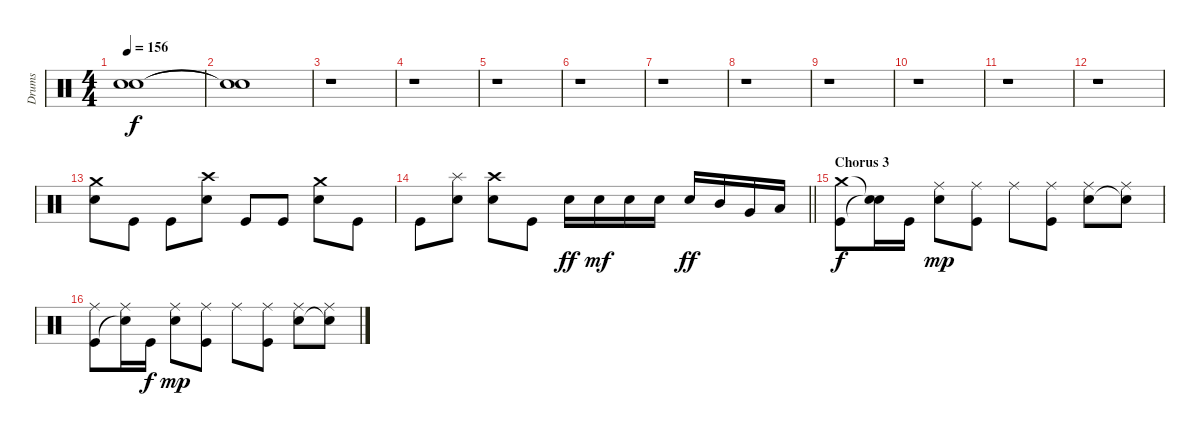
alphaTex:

\track ("Drums" "Drums") {instrument percussion}
\staff {score}
\articulation defaults
\ts (4 4)
\tempo 156
\clef neutral
\ks c
("Snare (hit)"{t} "Snare (hit)"{t}).1{dy f} |
("Snare (hit)"{t} "Snare (hit)"{t}).1 |
r.1 |
r.1 |
r.1 |
r.1 |
r.1 |
r.1 |
r.1 |
r.1 |
r.1 |
r.1 |
("Crash medium (hit)" "Snare (hit) 2").8 "Kick (hit)".8 "Kick (hit)".8 ("Crash high (hit)" "Snare (hit) 2").8 "Kick (hit)".8 "Kick (hit)".8 ("Crash medium (hit)" "Snare (hit) 2").8 "Kick (hit)".8 |
\barLineRight lightlight "Kick (hit)".8
("Splash (hit)" "Snare (hit) 2").8 ("Crash high (hit)" "Snare (hit) 2").8 "Kick (hit)".8 "Snare (hit) 2".16{dy ff} "Snare (hit) 2".16{dy mf} "Snare (hit) 2".16 "Snare (hit) 2".16 "Snare (hit) 2".16{dy ff} "Mid Tom (hit)".16 "Very Low Tom (hit)".16 "Low Floor Tom (hit)".16 |
\section ("" "Chorus 3")
("Crash medium (hit)" "Kick (hit)").8{dy f} ("Snare (hit)"{t} "Snare (hit)"{t}).16 "Kick (hit)".16 ("Ride (middle)" "Snare (hit) 2").8{dy mp} ("Ride (middle)" "Kick (hit)").8 "Ride (middle)".8 ("Ride (middle)" "Kick (hit)").8 ("Ride (middle)" "Snare (hit) 2").8 ("Ride (middle)" "Snare (hit)"{t}).8 |
("Ride (middle)" "Kick (hit)").8 ("Ride (middle)" "Snare (hit)"{t}).16 "Kick (hit)".16{dy f} ("Ride (middle)" "Snare (hit) 2").8{dy mp} ("Ride (middle)" "Kick (hit)").8 "Ride (middle)".8 ("Ride (middle)" "Kick (hit)").8 ("Ride (middle)" "Snare (hit) 2").8 ("Ride (middle)" "Snare (hit)"{t}).8
